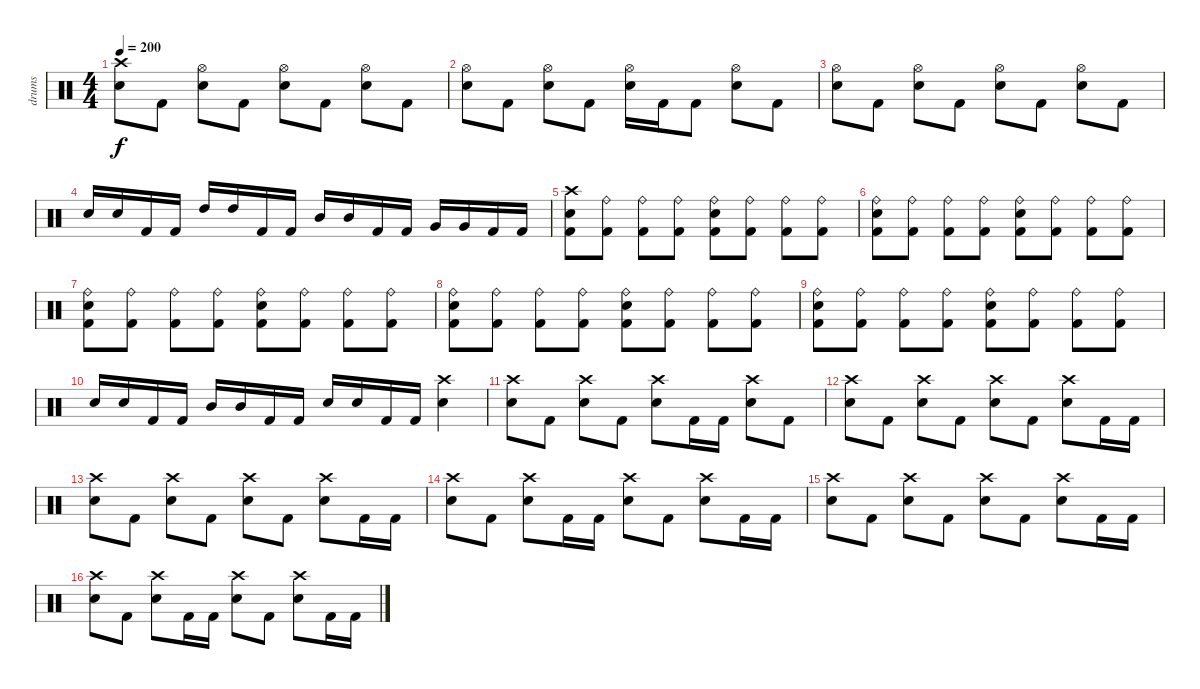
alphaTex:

\track ("drums" "drums") {instrument percussion}
\staff {score}
\articulation defaults
\ts (4 4)
\tempo 200
\clef neutral
\ks c
("Crash high (hit)" "Electric Snare (hit)").8{dy f} "Kick (hit) 2".8 ("Hi-Hat (open)" "Electric Snare (hit)").8 "Kick (hit) 2".8 ("Hi-Hat (open)" "Electric Snare (hit)").8 "Kick (hit) 2".8 ("Hi-Hat (open)" "Electric Snare (hit)").8 "Kick (hit) 2".8 |
("Hi-Hat (open)" "Electric Snare (hit)").8 "Kick (hit) 2".8 ("Hi-Hat (open)" "Electric Snare (hit)").8 "Kick (hit) 2".8 ("Hi-Hat (open)" "Electric Snare (hit)").16 "Kick (hit) 2".16 "Kick (hit) 2".8 ("Hi-Hat (open)" "Electric Snare (hit)").8 "Kick (hit) 2".8 |
("Hi-Hat (open)" "Electric Snare (hit)").8 "Kick (hit) 2".8 ("Hi-Hat (open)" "Electric Snare (hit)").8 "Kick (hit) 2".8 ("Hi-Hat (open)" "Electric Snare (hit)").8 "Kick (hit) 2".8 ("Hi-Hat (open)" "Electric Snare (hit)").8 "Kick (hit) 2".8 |
"Electric Snare (hit)".16 "Electric Snare (hit)".16 "Kick (hit) 2".16 "Kick (hit) 2".16 "High Tom (hit)".16 "High Tom (hit)".16 "Kick (hit) 2".16 "Kick (hit) 2".16 "Mid Tom (hit)".16 "Mid Tom (hit)".16 "Kick (hit) 2".16 "Kick (hit) 2".16 "Very Low Tom (hit)".16 "Very Low Tom (hit)".16 "Kick (hit) 2".16 "Kick (hit) 2".16 |
("Crash high (hit)" "Electric Snare (hit)" "Kick (hit) 2").8 ("Ride (bell)" "Kick (hit) 2").8 ("Ride (bell)" "Kick (hit) 2").8 ("Ride (bell)" "Kick (hit) 2").8 ("Ride (bell)" "Electric Snare (hit)" "Kick (hit) 2").8 ("Ride (bell)" "Kick (hit) 2").8 ("Ride (bell)" "Kick (hit) 2").8 ("Ride (bell)" "Kick (hit) 2").8 |
("Ride (bell)" "Electric Snare (hit)" "Kick (hit) 2").8 ("Ride (bell)" "Kick (hit) 2").8 ("Ride (bell)" "Kick (hit) 2").8 ("Ride (bell)" "Kick (hit) 2").8 ("Ride (bell)" "Electric Snare (hit)" "Kick (hit) 2").8 ("Ride (bell)" "Kick (hit) 2").8 ("Ride (bell)" "Kick (hit) 2").8 ("Ride (bell)" "Kick (hit) 2").8 |
("Ride (bell)" "Electric Snare (hit)" "Kick (hit) 2").8 ("Ride (bell)" "Kick (hit) 2").8 ("Ride (bell)" "Kick (hit) 2").8 ("Ride (bell)" "Kick (hit) 2").8 ("Ride (bell)" "Electric Snare (hit)" "Kick (hit) 2").8 ("Ride (bell)" "Kick (hit) 2").8 ("Ride (bell)" "Kick (hit) 2").8 ("Ride (bell)" "Kick (hit) 2").8 |
("Ride (bell)" "Electric Snare (hit)" "Kick (hit) 2").8 ("Ride (bell)" "Kick (hit) 2").8 ("Ride (bell)" "Kick (hit) 2").8 ("Ride (bell)" "Kick (hit) 2").8 ("Ride (bell)" "Electric Snare (hit)" "Kick (hit) 2").8 ("Ride (bell)" "Kick (hit) 2").8 ("Ride (bell)" "Kick (hit) 2").8 ("Ride (bell)" "Kick (hit) 2").8 |
("Ride (bell)" "Electric Snare (hit)" "Kick (hit) 2").8 ("Ride (bell)" "Kick (hit) 2").8 ("Ride (bell)" "Kick (hit) 2").8 ("Ride (bell)" "Kick (hit) 2").8 ("Ride (bell)" "Electric Snare (hit)" "Kick (hit) 2").8 ("Ride (bell)" "Kick (hit) 2").8 ("Ride (bell)" "Kick (hit) 2").8 ("Ride (bell)" "Kick (hit) 2").8 |
"Electric Snare (hit)".16 "Electric Snare (hit)".16 "Kick (hit) 2".16 "Kick (hit) 2".16 "Mid Tom (hit)".16 "Mid Tom (hit)".16 "Kick (hit) 2".16 "Kick (hit) 2".16 "Electric Snare (hit)".16 "Electric Snare (hit)".16 "Kick (hit) 2".16 "Kick (hit) 2".16 ("Crash high (hit)" "Electric Snare (hit)").4 |
\section ("" "")
("Crash high (hit)" "Electric Snare (hit)").8 "Kick (hit) 2".8 ("Crash high (hit)" "Electric Snare (hit)").8 "Kick (hit) 2".8 ("Crash high (hit)" "Electric Snare (hit)").8 "Kick (hit) 2".16 "Kick (hit) 2".16 ("Crash high (hit)" "Electric Snare (hit)").8 "Kick (hit) 2".8 |
("Crash high (hit)" "Electric Snare (hit)").8 "Kick (hit) 2".8 ("Crash high (hit)" "Electric Snare (hit)").8 "Kick (hit) 2".8 ("Crash high (hit)" "Electric Snare (hit)").8 "Kick (hit) 2".8 ("Crash high (hit)" "Electric Snare (hit)").8 "Kick (hit) 2".16 "Kick (hit) 2".16 |
("Crash high (hit)" "Electric Snare (hit)").8 "Kick (hit) 2".8 ("Crash high (hit)" "Electric Snare (hit)").8 "Kick (hit) 2".8 ("Crash high (hit)" "Electric Snare (hit)").8 "Kick (hit) 2".8 ("Crash high (hit)" "Electric Snare (hit)").8 "Kick (hit) 2".16 "Kick (hit) 2".16 |
("Crash high (hit)" "Electric Snare (hit)").8 "Kick (hit) 2".8 ("Crash high (hit)" "Electric Snare (hit)").8 "Kick (hit) 2".16 "Kick (hit) 2".16 ("Crash high (hit)" "Electric Snare (hit)").8 "Kick (hit) 2".8 ("Crash high (hit)" "Electric Snare (hit)").8 "Kick (hit) 2".16 "Kick (hit) 2".16 |
("Crash high (hit)" "Electric Snare (hit)").8 "Kick (hit) 2".8 ("Crash high (hit)" "Electric Snare (hit)").8 "Kick (hit) 2".8 ("Crash high (hit)" "Electric Snare (hit)").8 "Kick (hit) 2".8 ("Crash high (hit)" "Electric Snare (hit)").8 "Kick (hit) 2".16 "Kick (hit) 2".16 |
("Crash high (hit)" "Electric Snare (hit)").8 "Kick (hit) 2".8 ("Crash high (hit)" "Electric Snare (hit)").8 "Kick (hit) 2".16 "Kick (hit) 2".16 ("Crash high (hit)" "Electric Snare (hit)").8 "Kick (hit) 2".8 ("Crash high (hit)" "Electric Snare (hit)").8 "Kick (hit) 2".16 "Kick (hit) 2".16
